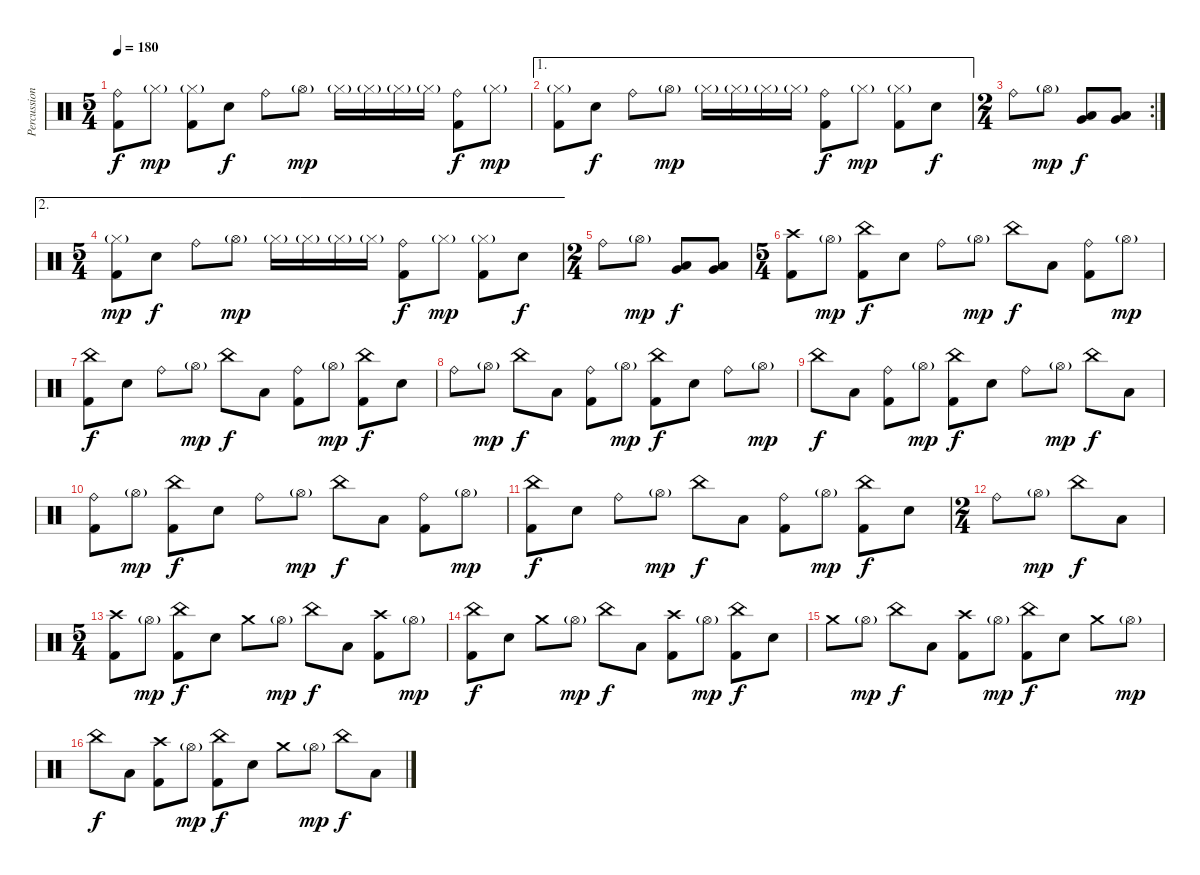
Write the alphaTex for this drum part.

\track ("Percussion" "Percussion") {instrument percussion}
\staff {score}
\articulation defaults
\ts (5 4)
\tempo 180
\clef neutral
\ks c
("Ride (bell)" "Kick (hit) 2").8{dy f} "Hi-Hat (closed)"{g}.8{dy mp} ("Hi-Hat (closed)"{g} "Kick (hit) 2").8 "Snare (hit) 2".8{dy f} "Ride (bell)".8 "Hi-Hat (open)"{g}.8{dy mp} "Hi-Hat (closed)"{g}.16 "Hi-Hat (closed)"{g}.16 "Hi-Hat (closed)"{g}.16 "Hi-Hat (closed)"{g}.16 ("Ride (bell)" "Kick (hit) 2").8{dy f} "Hi-Hat (closed)"{g}.8{dy mp} |
\ae 1
("Hi-Hat (closed)"{g} "Kick (hit) 2").8 "Snare (hit) 2".8{dy f} "Ride (bell)".8 "Hi-Hat (open)"{g}.8{dy mp} "Hi-Hat (closed)"{g}.16 "Hi-Hat (closed)"{g}.16 "Hi-Hat (closed)"{g}.16 "Hi-Hat (closed)"{g}.16 ("Ride (bell)" "Kick (hit) 2").8{dy f} "Hi-Hat (closed)"{g}.8{dy mp} ("Hi-Hat (closed)"{g} "Kick (hit) 2").8 "Snare (hit) 2".8{dy f} |
\rc 2
\ts (2 4)
"Ride (bell)".8 "Hi-Hat (open)"{g}.8{dy mp} ("Very Low Tom (hit)" "Low Floor Tom (hit)").8{dy f} ("Very Low Tom (hit)" "Low Floor Tom (hit)").8 |
\ae 2
\ts (5 4)
("Hi-Hat (closed)"{g} "Kick (hit) 2").8{dy mp} "Snare (hit) 2".8{dy f} "Ride (bell)".8 "Hi-Hat (open)"{g}.8{dy mp} "Hi-Hat (closed)"{g}.16 "Hi-Hat (closed)"{g}.16 "Hi-Hat (closed)"{g}.16 "Hi-Hat (closed)"{g}.16 ("Ride (bell)" "Kick (hit) 2").8{dy f} "Hi-Hat (closed)"{g}.8{dy mp} ("Hi-Hat (closed)"{g} "Kick (hit) 2").8 "Snare (hit) 2".8{dy f} |
\ts (2 4)
"Ride (bell)".8 "Hi-Hat (open)"{g}.8{dy mp} ("Very Low Tom (hit)" "Low Floor Tom (hit)").8{dy f} ("Very Low Tom (hit)" "Low Floor Tom (hit)").8 |
\ts (5 4)
("Crash high (hit)" "Kick (hit) 2").8 "Hi-Hat (open)"{g}.8{dy mp} ("China (hit)" "Kick (hit) 2").8{dy f} "Snare (hit) 2".8 "Ride (bell)".8 "Hi-Hat (open)"{g}.8{dy mp} "China (hit)".8{dy f} "Low Tom (hit)".8 ("Ride (bell)" "Kick (hit) 2").8 "Hi-Hat (open)"{g}.8{dy mp} |
("China (hit)" "Kick (hit) 2").8{dy f} "Snare (hit) 2".8 "Ride (bell)".8 "Hi-Hat (open)"{g}.8{dy mp} "China (hit)".8{dy f} "Low Tom (hit)".8 ("Ride (bell)" "Kick (hit) 2").8 "Hi-Hat (open)"{g}.8{dy mp} ("China (hit)" "Kick (hit) 2").8{dy f} "Snare (hit) 2".8 |
"Ride (bell)".8 "Hi-Hat (open)"{g}.8{dy mp} "China (hit)".8{dy f} "Low Tom (hit)".8 ("Ride (bell)" "Kick (hit) 2").8 "Hi-Hat (open)"{g}.8{dy mp} ("China (hit)" "Kick (hit) 2").8{dy f} "Snare (hit) 2".8 "Ride (bell)".8 "Hi-Hat (open)"{g}.8{dy mp} |
"China (hit)".8{dy f} "Low Tom (hit)".8 ("Ride (bell)" "Kick (hit) 2").8 "Hi-Hat (open)"{g}.8{dy mp} ("China (hit)" "Kick (hit) 2").8{dy f} "Snare (hit) 2".8 "Ride (bell)".8 "Hi-Hat (open)"{g}.8{dy mp} "China (hit)".8{dy f} "Low Tom (hit)".8 |
("Ride (bell)" "Kick (hit) 2").8 "Hi-Hat (open)"{g}.8{dy mp} ("China (hit)" "Kick (hit) 2").8{dy f} "Snare (hit) 2".8 "Ride (bell)".8 "Hi-Hat (open)"{g}.8{dy mp} "China (hit)".8{dy f} "Low Tom (hit)".8 ("Ride (bell)" "Kick (hit) 2").8 "Hi-Hat (open)"{g}.8{dy mp} |
("China (hit)" "Kick (hit) 2").8{dy f} "Snare (hit) 2".8 "Ride (bell)".8 "Hi-Hat (open)"{g}.8{dy mp} "China (hit)".8{dy f} "Low Tom (hit)".8 ("Ride (bell)" "Kick (hit) 2").8 "Hi-Hat (open)"{g}.8{dy mp} ("China (hit)" "Kick (hit) 2").8{dy f} "Snare (hit) 2".8 |
\ts (2 4)
"Ride (bell)".8 "Hi-Hat (open)"{g}.8{dy mp} "China (hit)".8{dy f} "Low Tom (hit)".8 |
\ts (5 4)
("Crash high (hit)" "Kick (hit) 2").8 "Hi-Hat (open)"{g}.8{dy mp} ("China (hit)" "Kick (hit) 2").8{dy f} "Snare (hit) 2".8 "Crash medium (hit)".8 "Hi-Hat (open)"{g}.8{dy mp} "China (hit)".8{dy f} "Low Tom (hit)".8 ("Crash high (hit)" "Kick (hit) 2").8 "Hi-Hat (open)"{g}.8{dy mp} |
("China (hit)" "Kick (hit) 2").8{dy f} "Snare (hit) 2".8 "Crash medium (hit)".8 "Hi-Hat (open)"{g}.8{dy mp} "China (hit)".8{dy f} "Low Tom (hit)".8 ("Crash high (hit)" "Kick (hit) 2").8 "Hi-Hat (open)"{g}.8{dy mp} ("China (hit)" "Kick (hit) 2").8{dy f} "Snare (hit) 2".8 |
"Crash medium (hit)".8 "Hi-Hat (open)"{g}.8{dy mp} "China (hit)".8{dy f} "Low Tom (hit)".8 ("Crash high (hit)" "Kick (hit) 2").8 "Hi-Hat (open)"{g}.8{dy mp} ("China (hit)" "Kick (hit) 2").8{dy f} "Snare (hit) 2".8 "Crash medium (hit)".8 "Hi-Hat (open)"{g}.8{dy mp} |
"China (hit)".8{dy f} "Low Tom (hit)".8 ("Crash high (hit)" "Kick (hit) 2").8 "Hi-Hat (open)"{g}.8{dy mp} ("China (hit)" "Kick (hit) 2").8{dy f} "Snare (hit) 2".8 "Crash medium (hit)".8 "Hi-Hat (open)"{g}.8{dy mp} "China (hit)".8{dy f} "Low Tom (hit)".8
